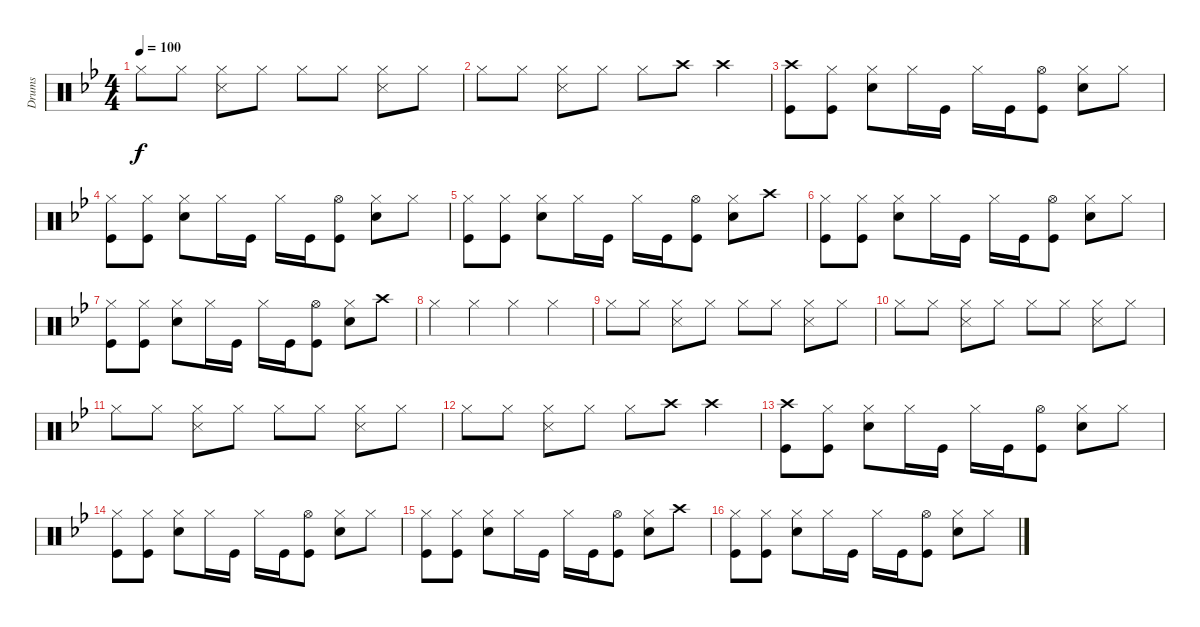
\track ("Drums" "Drums") {instrument percussion}
\staff {score}
\articulation defaults
\ts (4 4)
\tempo 100
\clef neutral
\ks bb "Hi-Hat (closed)".8{dy f} "Hi-Hat (closed)".8
("Hi-Hat (closed)" "Snare (side stick) 3").8 "Hi-Hat (closed)".8 "Hi-Hat (closed)".8 "Hi-Hat (closed)".8 ("Hi-Hat (closed)" "Snare (side stick) 3").8 "Hi-Hat (closed)".8 |
"Hi-Hat (closed)".8 "Hi-Hat (closed)".8 ("Hi-Hat (closed)" "Snare (side stick) 3").8 "Hi-Hat (closed)".8 "Hi-Hat (closed)".8 "Crash high (hit)".8 "Crash high (hit)".4 |
("Crash high (hit)" "Kick (hit)").8 ("Hi-Hat (closed)" "Kick (hit)").8 ("Hi-Hat (closed)" "Snare (hit) 2").8 "Hi-Hat (closed)".16 "Kick (hit)".16 "Hi-Hat (closed)".16 "Kick (hit)".16 ("Hi-Hat (open)" "Kick (hit)").8 ("Hi-Hat (closed)" "Snare (hit) 2").8 "Hi-Hat (closed)".8 |
("Hi-Hat (closed)" "Kick (hit)").8 ("Hi-Hat (closed)" "Kick (hit)").8 ("Hi-Hat (closed)" "Snare (hit) 2").8 "Hi-Hat (closed)".16 "Kick (hit)".16 "Hi-Hat (closed)".16 "Kick (hit)".16 ("Hi-Hat (open)" "Kick (hit)").8 ("Hi-Hat (closed)" "Snare (hit) 2").8 "Hi-Hat (closed)".8 |
("Hi-Hat (closed)" "Kick (hit)").8 ("Hi-Hat (closed)" "Kick (hit)").8 ("Hi-Hat (closed)" "Snare (hit) 2").8 "Hi-Hat (closed)".16 "Kick (hit)".16 "Hi-Hat (closed)".16 "Kick (hit)".16 ("Hi-Hat (open)" "Kick (hit)").8 ("Hi-Hat (closed)" "Snare (hit) 2").8 "Crash high (hit)".8 |
("Hi-Hat (closed)" "Kick (hit)").8 ("Hi-Hat (closed)" "Kick (hit)").8 ("Hi-Hat (closed)" "Snare (hit) 2").8 "Hi-Hat (closed)".16 "Kick (hit)".16 "Hi-Hat (closed)".16 "Kick (hit)".16 ("Hi-Hat (open)" "Kick (hit)").8 ("Hi-Hat (closed)" "Snare (hit) 2").8 "Hi-Hat (closed)".8 |
("Hi-Hat (closed)" "Kick (hit)").8 ("Hi-Hat (closed)" "Kick (hit)").8 ("Hi-Hat (closed)" "Snare (hit) 2").8 "Hi-Hat (closed)".16 "Kick (hit)".16 "Hi-Hat (closed)".16 "Kick (hit)".16 ("Hi-Hat (open)" "Kick (hit)").8 ("Hi-Hat (closed)" "Snare (hit) 2").8 "Crash high (hit)".8 |
"Hi-Hat (closed)".4 "Hi-Hat (closed)".4 "Hi-Hat (closed)".4 "Hi-Hat (closed)".4 |
"Hi-Hat (closed)".8 "Hi-Hat (closed)".8 ("Hi-Hat (closed)" "Snare (side stick) 3").8 "Hi-Hat (closed)".8 "Hi-Hat (closed)".8 "Hi-Hat (closed)".8 ("Hi-Hat (closed)" "Snare (side stick) 3").8 "Hi-Hat (closed)".8 |
"Hi-Hat (closed)".8 "Hi-Hat (closed)".8 ("Hi-Hat (closed)" "Snare (side stick) 3").8 "Hi-Hat (closed)".8 "Hi-Hat (closed)".8 "Hi-Hat (closed)".8 ("Hi-Hat (closed)" "Snare (side stick) 3").8 "Hi-Hat (closed)".8 |
"Hi-Hat (closed)".8 "Hi-Hat (closed)".8 ("Hi-Hat (closed)" "Snare (side stick) 3").8 "Hi-Hat (closed)".8 "Hi-Hat (closed)".8 "Hi-Hat (closed)".8 ("Hi-Hat (closed)" "Snare (side stick) 3").8 "Hi-Hat (closed)".8 |
"Hi-Hat (closed)".8 "Hi-Hat (closed)".8 ("Hi-Hat (closed)" "Snare (side stick) 3").8 "Hi-Hat (closed)".8 "Hi-Hat (closed)".8 "Crash high (hit)".8 "Crash high (hit)".4 |
("Crash high (hit)" "Kick (hit)").8 ("Hi-Hat (closed)" "Kick (hit)").8 ("Hi-Hat (closed)" "Snare (hit) 2").8 "Hi-Hat (closed)".16 "Kick (hit)".16 "Hi-Hat (closed)".16 "Kick (hit)".16 ("Hi-Hat (open)" "Kick (hit)").8 ("Hi-Hat (closed)" "Snare (hit) 2").8 "Hi-Hat (closed)".8 |
("Hi-Hat (closed)" "Kick (hit)").8 ("Hi-Hat (closed)" "Kick (hit)").8 ("Hi-Hat (closed)" "Snare (hit) 2").8 "Hi-Hat (closed)".16 "Kick (hit)".16 "Hi-Hat (closed)".16 "Kick (hit)".16 ("Hi-Hat (open)" "Kick (hit)").8 ("Hi-Hat (closed)" "Snare (hit) 2").8 "Hi-Hat (closed)".8 |
("Hi-Hat (closed)" "Kick (hit)").8 ("Hi-Hat (closed)" "Kick (hit)").8 ("Hi-Hat (closed)" "Snare (hit) 2").8 "Hi-Hat (closed)".16 "Kick (hit)".16 "Hi-Hat (closed)".16 "Kick (hit)".16 ("Hi-Hat (open)" "Kick (hit)").8 ("Hi-Hat (closed)" "Snare (hit) 2").8 "Crash high (hit)".8 |
("Hi-Hat (closed)" "Kick (hit)").8 ("Hi-Hat (closed)" "Kick (hit)").8 ("Hi-Hat (closed)" "Snare (hit) 2").8 "Hi-Hat (closed)".16 "Kick (hit)".16 "Hi-Hat (closed)".16 "Kick (hit)".16 ("Hi-Hat (open)" "Kick (hit)").8 ("Hi-Hat (closed)" "Snare (hit) 2").8 "Hi-Hat (closed)".8
